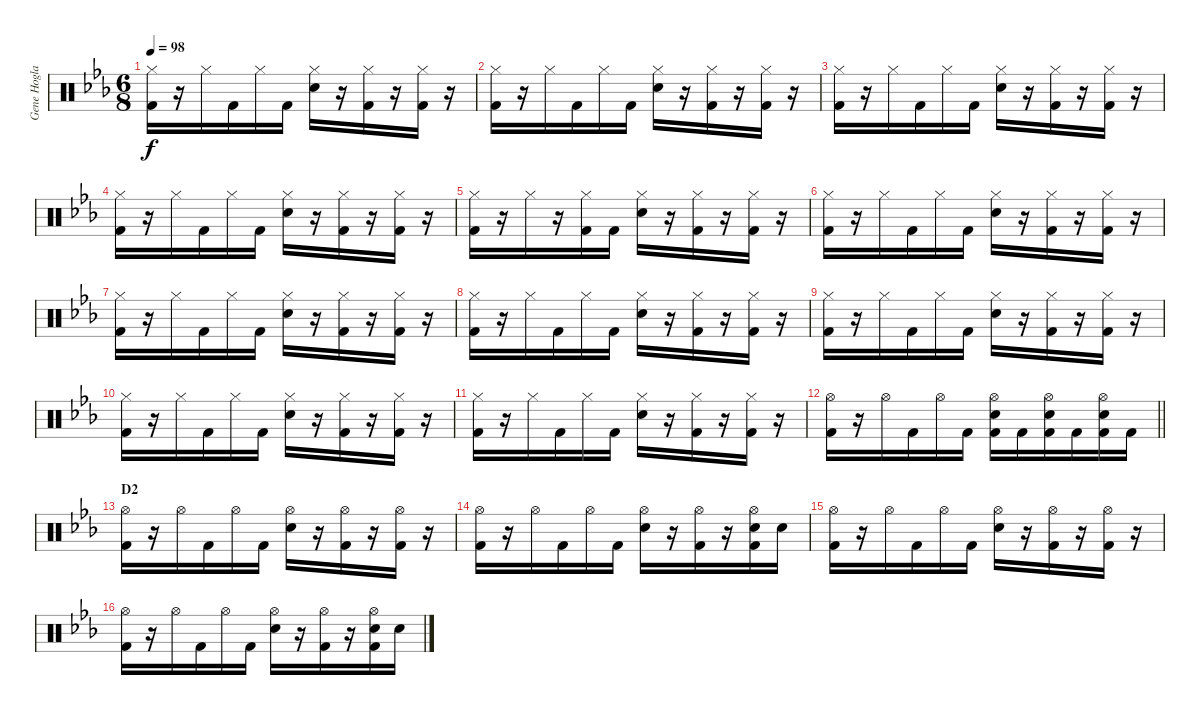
\track ("Gene Hogland" "Gene Hogla") {instrument percussion}
\staff {score}
\articulation defaults
\ts (6 8)
\tempo 98
\clef neutral
\ks eb
("Hi-Hat (closed)" "Kick (hit) 2").16{dy f} r.16 "Hi-Hat (closed)".16 "Kick (hit) 2".16 "Hi-Hat (closed)".16 "Kick (hit) 2".16 ("Hi-Hat (closed)" "Electric Snare (hit)").16 r.16 ("Hi-Hat (closed)" "Kick (hit) 2").16 r.16 ("Hi-Hat (closed)" "Kick (hit) 2").16 r.16 |
("Hi-Hat (closed)" "Kick (hit) 2").16 r.16 "Hi-Hat (closed)".16 "Kick (hit) 2".16 "Hi-Hat (closed)".16 "Kick (hit) 2".16 ("Hi-Hat (closed)" "Electric Snare (hit)").16 r.16 ("Hi-Hat (closed)" "Kick (hit) 2").16 r.16 ("Hi-Hat (closed)" "Kick (hit) 2").16 r.16 |
("Hi-Hat (closed)" "Kick (hit) 2").16 r.16 "Hi-Hat (closed)".16 "Kick (hit) 2".16 "Hi-Hat (closed)".16 "Kick (hit) 2".16 ("Hi-Hat (closed)" "Electric Snare (hit)").16 r.16 ("Hi-Hat (closed)" "Kick (hit) 2").16 r.16 ("Hi-Hat (closed)" "Kick (hit) 2").16 r.16 |
("Hi-Hat (closed)" "Kick (hit) 2").16 r.16 "Hi-Hat (closed)".16 "Kick (hit) 2".16 "Hi-Hat (closed)".16 "Kick (hit) 2".16 ("Hi-Hat (closed)" "Electric Snare (hit)").16 r.16 ("Hi-Hat (closed)" "Kick (hit) 2").16 r.16 ("Hi-Hat (closed)" "Kick (hit) 2").16 r.16 |
("Hi-Hat (closed)" "Kick (hit) 2").16 r.16 "Hi-Hat (closed)".16 r.16 ("Hi-Hat (closed)" "Kick (hit) 2").16 "Kick (hit) 2".16 ("Hi-Hat (closed)" "Electric Snare (hit)").16 r.16 ("Hi-Hat (closed)" "Kick (hit) 2").16 r.16 ("Hi-Hat (closed)" "Kick (hit) 2").16 r.16 |
("Hi-Hat (closed)" "Kick (hit) 2").16 r.16 "Hi-Hat (closed)".16 "Kick (hit) 2".16 "Hi-Hat (closed)".16 "Kick (hit) 2".16 ("Hi-Hat (closed)" "Electric Snare (hit)").16 r.16 ("Hi-Hat (closed)" "Kick (hit) 2").16 r.16 ("Hi-Hat (closed)" "Kick (hit) 2").16 r.16 |
("Hi-Hat (closed)" "Kick (hit) 2").16 r.16 "Hi-Hat (closed)".16 "Kick (hit) 2".16 "Hi-Hat (closed)".16 "Kick (hit) 2".16 ("Hi-Hat (closed)" "Electric Snare (hit)").16 r.16 ("Hi-Hat (closed)" "Kick (hit) 2").16 r.16 ("Hi-Hat (closed)" "Kick (hit) 2").16 r.16 |
("Hi-Hat (closed)" "Kick (hit) 2").16 r.16 "Hi-Hat (closed)".16 "Kick (hit) 2".16 "Hi-Hat (closed)".16 "Kick (hit) 2".16 ("Hi-Hat (closed)" "Electric Snare (hit)").16 r.16 ("Hi-Hat (closed)" "Kick (hit) 2").16 r.16 ("Hi-Hat (closed)" "Kick (hit) 2").16 r.16 |
("Hi-Hat (closed)" "Kick (hit) 2").16 r.16 "Hi-Hat (closed)".16 "Kick (hit) 2".16 "Hi-Hat (closed)".16 "Kick (hit) 2".16 ("Hi-Hat (closed)" "Electric Snare (hit)").16 r.16 ("Hi-Hat (closed)" "Kick (hit) 2").16 r.16 ("Hi-Hat (closed)" "Kick (hit) 2").16 r.16 |
("Hi-Hat (closed)" "Kick (hit) 2").16 r.16 "Hi-Hat (closed)".16 "Kick (hit) 2".16 "Hi-Hat (closed)".16 "Kick (hit) 2".16 ("Hi-Hat (closed)" "Electric Snare (hit)").16 r.16 ("Hi-Hat (closed)" "Kick (hit) 2").16 r.16 ("Hi-Hat (closed)" "Kick (hit) 2").16 r.16 |
("Hi-Hat (closed)" "Kick (hit) 2").16 r.16 "Hi-Hat (closed)".16 "Kick (hit) 2".16 "Hi-Hat (closed)".16 "Kick (hit) 2".16 ("Hi-Hat (closed)" "Electric Snare (hit)").16 r.16 ("Hi-Hat (closed)" "Kick (hit) 2").16 r.16 ("Hi-Hat (closed)" "Kick (hit) 2").16 r.16 |
\barLineRight lightlight
("Hi-Hat (open)" "Kick (hit) 2").16 r.16 "Hi-Hat (open)".16 "Kick (hit) 2".16 "Hi-Hat (open)".16 "Kick (hit) 2".16 ("Hi-Hat (open)" "Electric Snare (hit)" "Kick (hit) 2").16 "Kick (hit) 2".16 ("Hi-Hat (open)" "Electric Snare (hit)" "Kick (hit) 2").16 "Kick (hit) 2".16 ("Hi-Hat (open)" "Electric Snare (hit)" "Kick (hit) 2").16 "Kick (hit) 2".16 |
\section ("" "D2")
("Hi-Hat (open)" "Kick (hit) 2").16 r.16 "Hi-Hat (open)".16 "Kick (hit) 2".16 "Hi-Hat (open)".16 "Kick (hit) 2".16 ("Hi-Hat (open)" "Electric Snare (hit)").16 r.16 ("Hi-Hat (open)" "Kick (hit) 2").16 r.16 ("Hi-Hat (open)" "Kick (hit) 2").16 r.16 |
("Hi-Hat (open)" "Kick (hit) 2").16 r.16 "Hi-Hat (open)".16 "Kick (hit) 2".16 "Hi-Hat (open)".16 "Kick (hit) 2".16 ("Hi-Hat (open)" "Electric Snare (hit)").16 r.16 ("Hi-Hat (open)" "Kick (hit) 2").16 r.16 ("Hi-Hat (open)" "Electric Snare (hit)" "Kick (hit) 2").16 "Electric Snare (hit)".16 |
("Hi-Hat (open)" "Kick (hit) 2").16 r.16 "Hi-Hat (open)".16 "Kick (hit) 2".16 "Hi-Hat (open)".16 "Kick (hit) 2".16 ("Hi-Hat (open)" "Electric Snare (hit)").16 r.16 ("Hi-Hat (open)" "Kick (hit) 2").16 r.16 ("Hi-Hat (open)" "Kick (hit) 2").16 r.16 |
("Hi-Hat (open)" "Kick (hit) 2").16 r.16 "Hi-Hat (open)".16 "Kick (hit) 2".16 "Hi-Hat (open)".16 "Kick (hit) 2".16 ("Hi-Hat (open)" "Electric Snare (hit)").16 r.16 ("Hi-Hat (open)" "Kick (hit) 2").16 r.16 ("Hi-Hat (open)" "Electric Snare (hit)" "Kick (hit) 2").16 "Electric Snare (hit)".16
